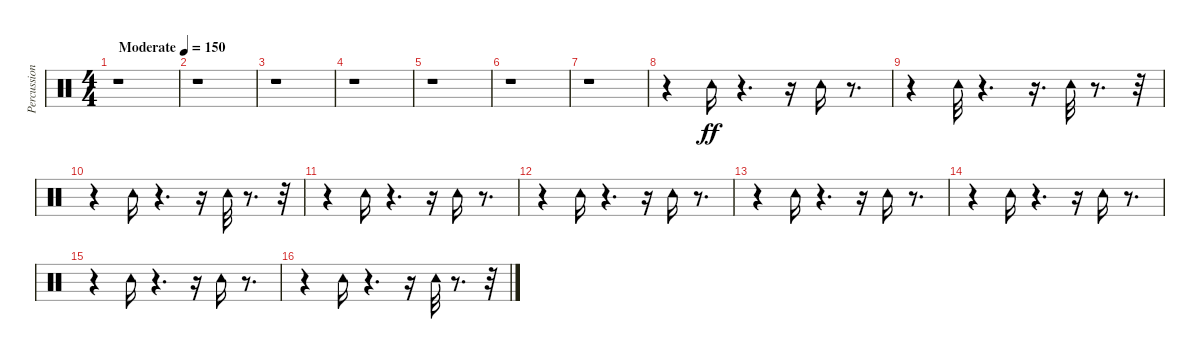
\track ("Percussion" "Percussion") {instrument percussion}
\staff {score}
\articulation defaults
\ts (4 4)
\tempo (150 "Moderate")
\clef neutral
\ks c
r.1{dy ff} |
r.1 |
r.1 |
r.1 |
r.1 |
r.1 |
r.1 |
r.4 "Tambourine (hit)".16 r.4{d} r.16 "Tambourine (hit)".16 r.8{d} |
r.4 "Tambourine (hit)".32 r.4{d} r.16{d} "Tambourine (hit)".32 r.8{d} r.32 |
r.4 "Tambourine (hit)".16 r.4{d} r.16 "Tambourine (hit)".32 r.8{d} r.32 |
r.4 "Tambourine (hit)".16 r.4{d} r.16 "Tambourine (hit)".16 r.8{d} |
r.4 "Tambourine (hit)".16 r.4{d} r.16 "Tambourine (hit)".16 r.8{d} |
r.4 "Tambourine (hit)".16 r.4{d} r.16 "Tambourine (hit)".16 r.8{d} |
r.4 "Tambourine (hit)".16 r.4{d} r.16 "Tambourine (hit)".16 r.8{d} |
r.4 "Tambourine (hit)".16 r.4{d} r.16 "Tambourine (hit)".16 r.8{d} |
r.4 "Tambourine (hit)".16 r.4{d} r.16 "Tambourine (hit)".32 r.8{d} r.32
